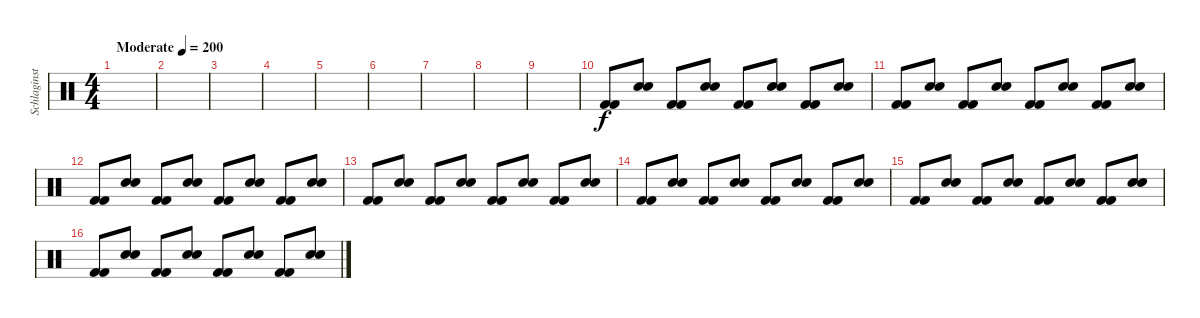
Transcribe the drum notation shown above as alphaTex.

\track ("Schlaginstrumente - Auswahl" "Schlaginst") {instrument percussion}
\staff {score}
\articulation defaults
\ts (4 4)
\tempo (200 "Moderate")
\clef neutral
\ks c
|
|
|
|
|
|
|
|
|
("Kick (hit) 2" "Kick (hit) 2").8 ("Electric Snare (hit)" "Electric Snare (hit)").8 ("Kick (hit) 2" "Kick (hit) 2").8 ("Electric Snare (hit)" "Electric Snare (hit)").8 ("Kick (hit) 2" "Kick (hit) 2").8 ("Electric Snare (hit)" "Electric Snare (hit)").8 ("Kick (hit) 2" "Kick (hit) 2").8 ("Electric Snare (hit)" "Electric Snare (hit)").8 |
("Kick (hit) 2" "Kick (hit) 2").8 ("Electric Snare (hit)" "Electric Snare (hit)").8 ("Kick (hit) 2" "Kick (hit) 2").8 ("Electric Snare (hit)" "Electric Snare (hit)").8 ("Kick (hit) 2" "Kick (hit) 2").8 ("Electric Snare (hit)" "Electric Snare (hit)").8 ("Kick (hit) 2" "Kick (hit) 2").8 ("Electric Snare (hit)" "Electric Snare (hit)").8 |
("Kick (hit) 2" "Kick (hit) 2").8 ("Electric Snare (hit)" "Electric Snare (hit)").8 ("Kick (hit) 2" "Kick (hit) 2").8 ("Electric Snare (hit)" "Electric Snare (hit)").8 ("Kick (hit) 2" "Kick (hit) 2").8 ("Electric Snare (hit)" "Electric Snare (hit)").8 ("Kick (hit) 2" "Kick (hit) 2").8 ("Electric Snare (hit)" "Electric Snare (hit)").8 |
("Kick (hit) 2" "Kick (hit) 2").8 ("Electric Snare (hit)" "Electric Snare (hit)").8 ("Kick (hit) 2" "Kick (hit) 2").8 ("Electric Snare (hit)" "Electric Snare (hit)").8 ("Kick (hit) 2" "Kick (hit) 2").8 ("Electric Snare (hit)" "Electric Snare (hit)").8 ("Kick (hit) 2" "Kick (hit) 2").8 ("Electric Snare (hit)" "Electric Snare (hit)").8 |
("Kick (hit) 2" "Kick (hit) 2").8 ("Electric Snare (hit)" "Electric Snare (hit)").8 ("Kick (hit) 2" "Kick (hit) 2").8 ("Electric Snare (hit)" "Electric Snare (hit)").8 ("Kick (hit) 2" "Kick (hit) 2").8 ("Electric Snare (hit)" "Electric Snare (hit)").8 ("Kick (hit) 2" "Kick (hit) 2").8 ("Electric Snare (hit)" "Electric Snare (hit)").8 |
("Kick (hit) 2" "Kick (hit) 2").8 ("Electric Snare (hit)" "Electric Snare (hit)").8 ("Kick (hit) 2" "Kick (hit) 2").8 ("Electric Snare (hit)" "Electric Snare (hit)").8 ("Kick (hit) 2" "Kick (hit) 2").8 ("Electric Snare (hit)" "Electric Snare (hit)").8 ("Kick (hit) 2" "Kick (hit) 2").8 ("Electric Snare (hit)" "Electric Snare (hit)").8 |
("Kick (hit) 2" "Kick (hit) 2").8 ("Electric Snare (hit)" "Electric Snare (hit)").8 ("Kick (hit) 2" "Kick (hit) 2").8 ("Electric Snare (hit)" "Electric Snare (hit)").8 ("Kick (hit) 2" "Kick (hit) 2").8 ("Electric Snare (hit)" "Electric Snare (hit)").8 ("Kick (hit) 2" "Kick (hit) 2").8 ("Electric Snare (hit)" "Electric Snare (hit)").8
